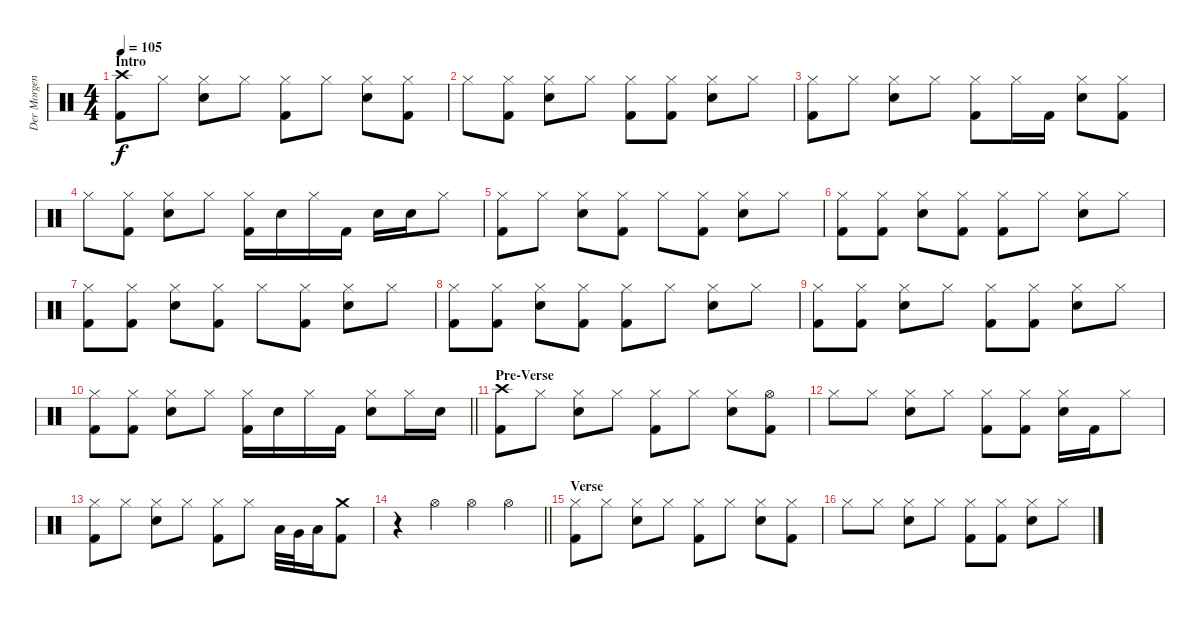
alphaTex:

\track ("Der Morgenstern" "Der Morgen") {instrument percussion}
\staff {score}
\articulation defaults
\ts (4 4)
\section ("" "Intro")
\tempo 105
\clef neutral
\ks c
("Crash high (hit)" "Kick (hit) 2").8{dy f} "Hi-Hat (closed)".8 ("Hi-Hat (closed)" "Electric Snare (hit)").8 "Hi-Hat (closed)".8 ("Hi-Hat (closed)" "Kick (hit) 2").8 "Hi-Hat (closed)".8 ("Hi-Hat (closed)" "Electric Snare (hit)").8 ("Hi-Hat (closed)" "Kick (hit) 2").8 |
"Hi-Hat (closed)".8 ("Hi-Hat (closed)" "Kick (hit) 2").8 ("Hi-Hat (closed)" "Electric Snare (hit)").8 "Hi-Hat (closed)".8 ("Hi-Hat (closed)" "Kick (hit) 2").8 ("Hi-Hat (closed)" "Kick (hit) 2").8 ("Hi-Hat (closed)" "Electric Snare (hit)").8 "Hi-Hat (closed)".8 |
("Hi-Hat (closed)" "Kick (hit) 2").8 "Hi-Hat (closed)".8 ("Hi-Hat (closed)" "Electric Snare (hit)").8 "Hi-Hat (closed)".8 ("Hi-Hat (closed)" "Kick (hit) 2").8 "Hi-Hat (closed)".16 "Kick (hit) 2".16 ("Hi-Hat (closed)" "Electric Snare (hit)").8 ("Hi-Hat (closed)" "Kick (hit) 2").8 |
"Hi-Hat (closed)".8 ("Hi-Hat (closed)" "Kick (hit) 2").8 ("Hi-Hat (closed)" "Electric Snare (hit)").8 "Hi-Hat (closed)".8 ("Hi-Hat (closed)" "Kick (hit) 2").16 "Electric Snare (hit)".16 "Hi-Hat (closed)".16 "Kick (hit) 2".16 "Electric Snare (hit)".16 "Electric Snare (hit)".16 "Hi-Hat (closed)".8 |
("Hi-Hat (closed)" "Kick (hit) 2").8 "Hi-Hat (closed)".8 ("Hi-Hat (closed)" "Electric Snare (hit)").8 ("Hi-Hat (closed)" "Kick (hit) 2").8 "Hi-Hat (closed)".8 ("Hi-Hat (closed)" "Kick (hit) 2").8 ("Hi-Hat (closed)" "Electric Snare (hit)").8 "Hi-Hat (closed)".8 |
("Hi-Hat (closed)" "Kick (hit) 2").8 ("Hi-Hat (closed)" "Kick (hit) 2").8 ("Hi-Hat (closed)" "Electric Snare (hit)").8 ("Hi-Hat (closed)" "Kick (hit) 2").8 ("Hi-Hat (closed)" "Kick (hit) 2").8 "Hi-Hat (closed)".8 ("Hi-Hat (closed)" "Electric Snare (hit)").8 "Hi-Hat (closed)".8 |
("Hi-Hat (closed)" "Kick (hit) 2").8 ("Hi-Hat (closed)" "Kick (hit) 2").8 ("Hi-Hat (closed)" "Electric Snare (hit)").8 ("Hi-Hat (closed)" "Kick (hit) 2").8 "Hi-Hat (closed)".8 ("Hi-Hat (closed)" "Kick (hit) 2").8 ("Hi-Hat (closed)" "Electric Snare (hit)").8 "Hi-Hat (closed)".8 |
("Hi-Hat (closed)" "Kick (hit) 2").8 ("Hi-Hat (closed)" "Kick (hit) 2").8 ("Hi-Hat (closed)" "Electric Snare (hit)").8 ("Hi-Hat (closed)" "Kick (hit) 2").8 ("Hi-Hat (closed)" "Kick (hit) 2").8 "Hi-Hat (closed)".8 ("Hi-Hat (closed)" "Electric Snare (hit)").8 "Hi-Hat (closed)".8 |
("Hi-Hat (closed)" "Kick (hit) 2").8 ("Hi-Hat (closed)" "Kick (hit) 2").8 ("Hi-Hat (closed)" "Electric Snare (hit)").8 "Hi-Hat (closed)".8 ("Hi-Hat (closed)" "Kick (hit) 2").8 ("Hi-Hat (closed)" "Kick (hit) 2").8 ("Hi-Hat (closed)" "Electric Snare (hit)").8 "Hi-Hat (closed)".8 |
\barLineRight lightlight
("Hi-Hat (closed)" "Kick (hit) 2").8 ("Hi-Hat (closed)" "Kick (hit) 2").8 ("Hi-Hat (closed)" "Electric Snare (hit)").8 "Hi-Hat (closed)".8 ("Hi-Hat (closed)" "Kick (hit) 2").16 "Electric Snare (hit)".16 "Hi-Hat (closed)".16 "Kick (hit) 2".16 ("Hi-Hat (closed)" "Electric Snare (hit)").8 "Hi-Hat (closed)".16 "Electric Snare (hit)".16 |
\section ("" "Pre-Verse")
("Crash high (hit)" "Kick (hit) 2").8 "Hi-Hat (closed)".8 ("Hi-Hat (closed)" "Electric Snare (hit)").8 "Hi-Hat (closed)".8 ("Hi-Hat (closed)" "Kick (hit) 2").8 "Hi-Hat (closed)".8 ("Hi-Hat (closed)" "Electric Snare (hit)").8 ("Hi-Hat (open)" "Kick (hit) 2").8 |
"Hi-Hat (closed)".8 "Hi-Hat (closed)".8 ("Hi-Hat (closed)" "Electric Snare (hit)").8 "Hi-Hat (closed)".8 ("Hi-Hat (closed)" "Kick (hit) 2").8 ("Hi-Hat (closed)" "Kick (hit) 2").8 ("Hi-Hat (closed)" "Electric Snare (hit)").16 "Kick (hit) 2".16 "Hi-Hat (closed)".8 |
("Hi-Hat (closed)" "Kick (hit) 2").8 "Hi-Hat (closed)".8 ("Hi-Hat (closed)" "Electric Snare (hit)").8 "Hi-Hat (closed)".8 ("Hi-Hat (closed)" "Kick (hit) 2").8 "Hi-Hat (closed)".8 "Low Tom (hit)".32 "Very Low Tom (hit)".32 "Low Floor Tom (hit)".16 ("Crash medium (hit)" "Kick (hit) 2").8 |
\barLineRight lightlight
r.4 "Hi-Hat (open)".4 "Hi-Hat (open)".4 "Hi-Hat (open)".4 |
\section ("" "Verse")
("Hi-Hat (closed)" "Kick (hit) 2").8 "Hi-Hat (closed)".8 ("Hi-Hat (closed)" "Electric Snare (hit)").8 "Hi-Hat (closed)".8 ("Hi-Hat (closed)" "Kick (hit) 2").8 "Hi-Hat (closed)".8 ("Hi-Hat (closed)" "Electric Snare (hit)").8 ("Hi-Hat (closed)" "Kick (hit) 2").8 |
"Hi-Hat (closed)".8 "Hi-Hat (closed)".8 ("Hi-Hat (closed)" "Electric Snare (hit)").8 "Hi-Hat (closed)".8 ("Hi-Hat (closed)" "Kick (hit) 2").8 ("Hi-Hat (closed)" "Kick (hit) 2").8 ("Hi-Hat (closed)" "Electric Snare (hit)").8 "Hi-Hat (closed)".8
